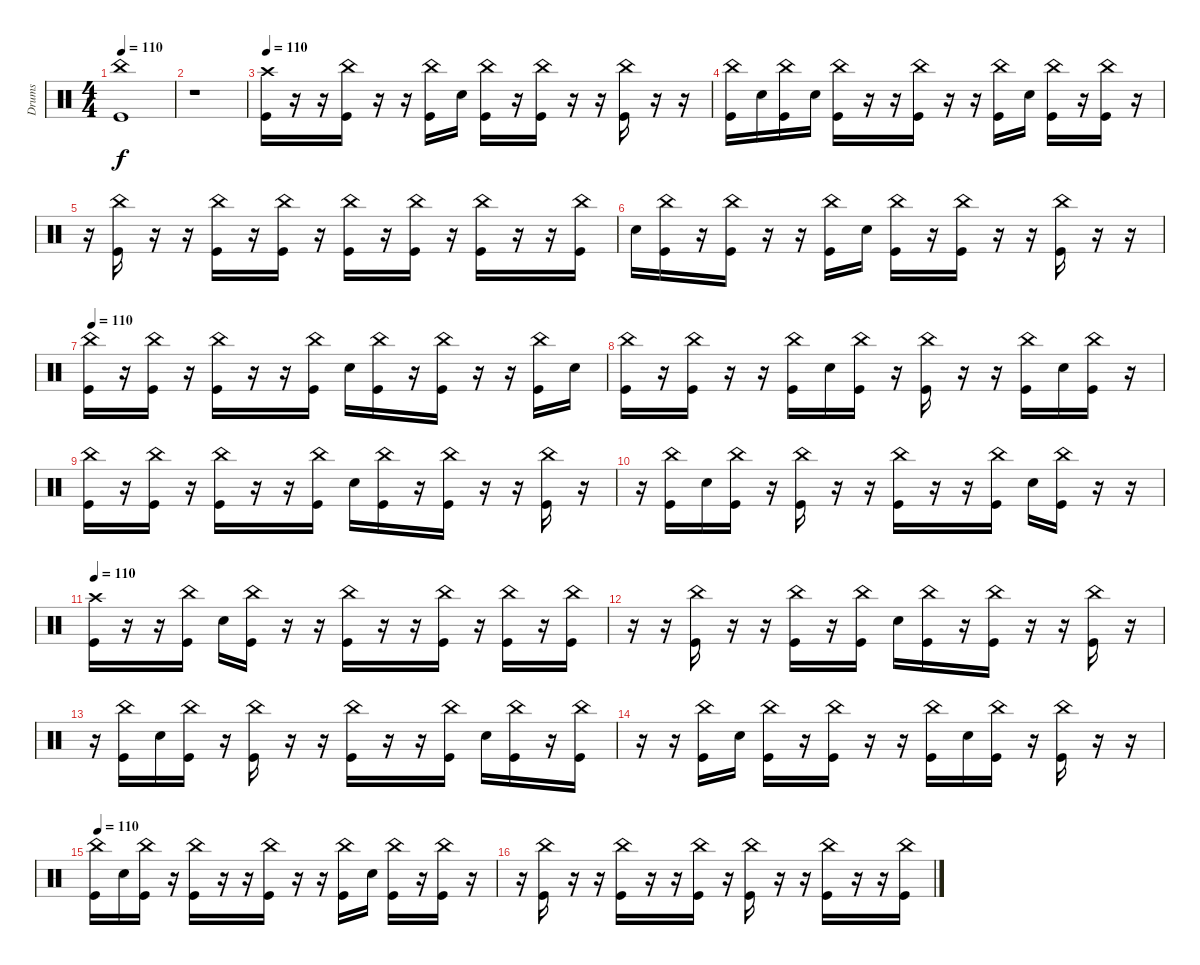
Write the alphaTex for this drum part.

\track ("Drums" "Drums") {instrument percussion}
\staff {score}
\articulation defaults
\ts (4 4)
\tempo 110
\clef neutral
\ks c
("China (hit)" "Kick (hit)").1{dy f} |
r.1 |
\tempo 110
("Crash high (hit)" "Kick (hit)").16 r.16 r.16 ("China (hit)" "Kick (hit)").16 r.16 r.16 ("China (hit)" "Kick (hit)").16 "Snare (hit) 2".16 ("China (hit)" "Kick (hit)").16 r.16 ("China (hit)" "Kick (hit)").16 r.16 r.16 ("China (hit)" "Kick (hit)").16 r.16 r.16 |
("China (hit)" "Kick (hit)").16 "Snare (hit) 2".16 ("China (hit)" "Kick (hit)").16 "Snare (hit) 2".16 ("China (hit)" "Kick (hit)").16 r.16 r.16 ("China (hit)" "Kick (hit)").16 r.16 r.16 ("China (hit)" "Kick (hit)").16 "Snare (hit) 2".16 ("China (hit)" "Kick (hit)").16 r.16 ("China (hit)" "Kick (hit)").16 r.16 |
r.16 ("China (hit)" "Kick (hit)").16 r.16 r.16 ("China (hit)" "Kick (hit)").16 r.16 ("China (hit)" "Kick (hit)").16 r.16 ("China (hit)" "Kick (hit)").16 r.16 ("China (hit)" "Kick (hit)").16 r.16 ("China (hit)" "Kick (hit)").16 r.16 r.16 ("China (hit)" "Kick (hit)").16 |
"Snare (hit) 2".16 ("China (hit)" "Kick (hit)").16 r.16 ("China (hit)" "Kick (hit)").16 r.16 r.16 ("China (hit)" "Kick (hit)").16 "Snare (hit) 2".16 ("China (hit)" "Kick (hit)").16 r.16 ("China (hit)" "Kick (hit)").16 r.16 r.16 ("China (hit)" "Kick (hit)").16 r.16 r.16 |
\tempo 110
("China (hit)" "Kick (hit)").16 r.16 ("China (hit)" "Kick (hit)").16 r.16 ("China (hit)" "Kick (hit)").16 r.16 r.16 ("China (hit)" "Kick (hit)").16 "Snare (hit) 2".16 ("China (hit)" "Kick (hit)").16 r.16 ("China (hit)" "Kick (hit)").16 r.16 r.16 ("China (hit)" "Kick (hit)").16 "Snare (hit) 2".16 |
("China (hit)" "Kick (hit)").16 r.16 ("China (hit)" "Kick (hit)").16 r.16 r.16 ("China (hit)" "Kick (hit)").16 "Snare (hit) 2".16 ("China (hit)" "Kick (hit)").16 r.16 ("China (hit)" "Kick (hit)").16 r.16 r.16 ("China (hit)" "Kick (hit)").16 "Snare (hit) 2".16 ("China (hit)" "Kick (hit)").16 r.16 |
("China (hit)" "Kick (hit)").16 r.16 ("China (hit)" "Kick (hit)").16 r.16 ("China (hit)" "Kick (hit)").16 r.16 r.16 ("China (hit)" "Kick (hit)").16 "Snare (hit) 2".16 ("China (hit)" "Kick (hit)").16 r.16 ("China (hit)" "Kick (hit)").16 r.16 r.16 ("China (hit)" "Kick (hit)").16 r.16 |
r.16 ("China (hit)" "Kick (hit)").16 "Snare (hit) 2".16 ("China (hit)" "Kick (hit)").16 r.16 ("China (hit)" "Kick (hit)").16 r.16 r.16 ("China (hit)" "Kick (hit)").16 r.16 r.16 ("China (hit)" "Kick (hit)").16 "Snare (hit) 2".16 ("China (hit)" "Kick (hit)").16 r.16 r.16 |
\tempo 110
("Crash high (hit)" "Kick (hit)").16 r.16 r.16 ("China (hit)" "Kick (hit)").16 "Snare (hit) 2".16 ("China (hit)" "Kick (hit)").16 r.16 r.16 ("China (hit)" "Kick (hit)").16 r.16 r.16 ("China (hit)" "Kick (hit)").16 r.16 ("China (hit)" "Kick (hit)").16 r.16 ("China (hit)" "Kick (hit)").16 |
r.16 r.16 ("China (hit)" "Kick (hit)").16 r.16 r.16 ("China (hit)" "Kick (hit)").16 r.16 ("China (hit)" "Kick (hit)").16 "Snare (hit) 2".16 ("China (hit)" "Kick (hit)").16 r.16 ("China (hit)" "Kick (hit)").16 r.16 r.16 ("China (hit)" "Kick (hit)").16 r.16 |
r.16 ("China (hit)" "Kick (hit)").16 "Snare (hit) 2".16 ("China (hit)" "Kick (hit)").16 r.16 ("China (hit)" "Kick (hit)").16 r.16 r.16 ("China (hit)" "Kick (hit)").16 r.16 r.16 ("China (hit)" "Kick (hit)").16 "Snare (hit) 2".16 ("China (hit)" "Kick (hit)").16 r.16 ("China (hit)" "Kick (hit)").16 |
r.16 r.16 ("China (hit)" "Kick (hit)").16 "Snare (hit) 2".16 ("China (hit)" "Kick (hit)").16 r.16 ("China (hit)" "Kick (hit)").16 r.16 r.16 ("China (hit)" "Kick (hit)").16 "Snare (hit) 2".16 ("China (hit)" "Kick (hit)").16 r.16 ("China (hit)" "Kick (hit)").16 r.16 r.16 |
\tempo 110
("China (hit)" "Kick (hit)").16 "Snare (hit) 2".16 ("China (hit)" "Kick (hit)").16 r.16 ("China (hit)" "Kick (hit)").16 r.16 r.16 ("China (hit)" "Kick (hit)").16 r.16 r.16 ("China (hit)" "Kick (hit)").16 "Snare (hit) 2".16 ("China (hit)" "Kick (hit)").16 r.16 ("China (hit)" "Kick (hit)").16 r.16 |
r.16 ("China (hit)" "Kick (hit)").16 r.16 r.16 ("China (hit)" "Kick (hit)").16 r.16 r.16 ("China (hit)" "Kick (hit)").16 r.16 ("China (hit)" "Kick (hit)").16 r.16 r.16 ("China (hit)" "Kick (hit)").16 r.16 r.16 ("China (hit)" "Kick (hit)").16
